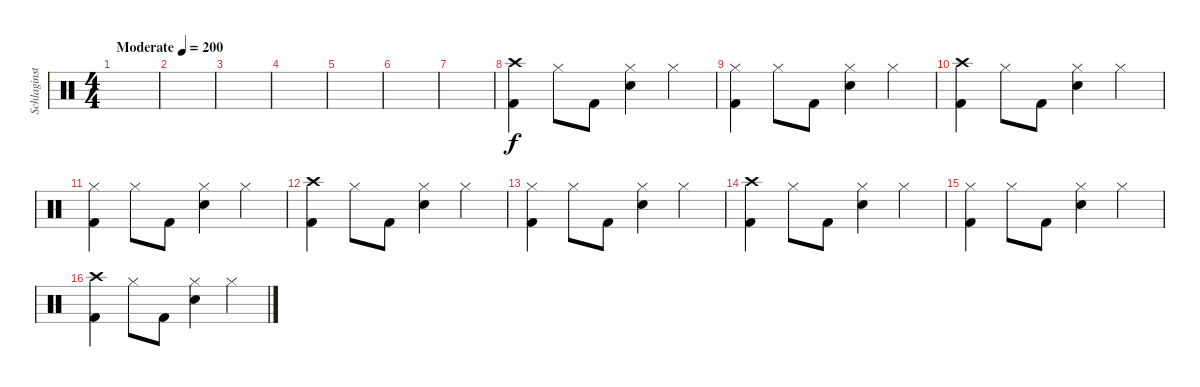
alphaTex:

\track ("Schlaginstrumente - Auswahl" "Schlaginst") {instrument percussion}
\staff {score}
\articulation defaults
\ts (4 4)
\tempo (200 "Moderate")
\clef neutral
\ks c
|
|
|
|
|
|
|
("Crash high (hit)" "Kick (hit) 2").4 "Hi-Hat (closed)".8 "Kick (hit) 2".8 ("Hi-Hat (closed)" "Electric Snare (hit)").4 "Hi-Hat (closed)".4 |
("Hi-Hat (closed)" "Kick (hit) 2").4 "Hi-Hat (closed)".8 "Kick (hit) 2".8 ("Hi-Hat (closed)" "Electric Snare (hit)").4 "Hi-Hat (closed)".4 |
("Crash high (hit)" "Kick (hit) 2").4 "Hi-Hat (closed)".8 "Kick (hit) 2".8 ("Hi-Hat (closed)" "Electric Snare (hit)").4 "Hi-Hat (closed)".4 |
("Hi-Hat (closed)" "Kick (hit) 2").4 "Hi-Hat (closed)".8 "Kick (hit) 2".8 ("Hi-Hat (closed)" "Electric Snare (hit)").4 "Hi-Hat (closed)".4 |
("Crash high (hit)" "Kick (hit) 2").4 "Hi-Hat (closed)".8 "Kick (hit) 2".8 ("Hi-Hat (closed)" "Electric Snare (hit)").4 "Hi-Hat (closed)".4 |
("Hi-Hat (closed)" "Kick (hit) 2").4 "Hi-Hat (closed)".8 "Kick (hit) 2".8 ("Hi-Hat (closed)" "Electric Snare (hit)").4 "Hi-Hat (closed)".4 |
("Crash high (hit)" "Kick (hit) 2").4 "Hi-Hat (closed)".8 "Kick (hit) 2".8 ("Hi-Hat (closed)" "Electric Snare (hit)").4 "Hi-Hat (closed)".4 |
("Hi-Hat (closed)" "Kick (hit) 2").4 "Hi-Hat (closed)".8 "Kick (hit) 2".8 ("Hi-Hat (closed)" "Electric Snare (hit)").4 "Hi-Hat (closed)".4 |
("Crash high (hit)" "Kick (hit) 2").4 "Hi-Hat (closed)".8 "Kick (hit) 2".8 ("Hi-Hat (closed)" "Electric Snare (hit)").4 "Hi-Hat (closed)".4
